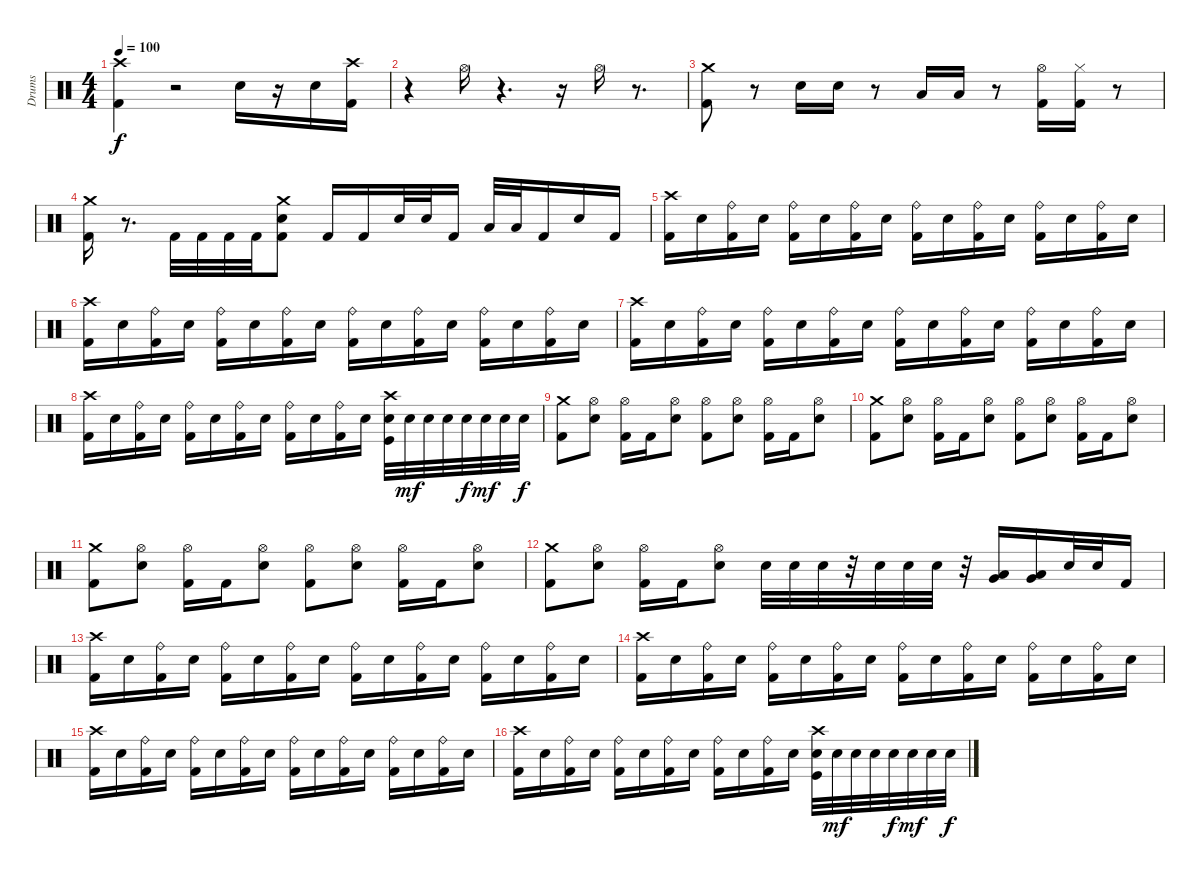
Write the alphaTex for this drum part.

\track ("Drums" "Drums") {instrument percussion}
\staff {score}
\articulation defaults
\ts (4 4)
\tempo 100
\clef neutral
\ks c
("Crash high (hit)" "Kick (hit) 2").4{dy f} r.2 "Electric Snare (hit)".16 r.16 "Electric Snare (hit)".16 ("Crash high (hit)" "Kick (hit) 2").16 |
r.4 "Hi-Hat (open)".16 r.4{d} r.16 "Hi-Hat (open)".16 r.8{d} |
("Kick (hit) 2" "Crash medium (hit)").8 r.8 "Electric Snare (hit)".16 "Electric Snare (hit)".16 r.8 "Low Tom (hit)".16 "Low Tom (hit)".16 r.8 ("Hi-Hat (open)" "Kick (hit) 2").16 ("Hi-Hat (closed)" "Kick (hit) 2").16 r.8 |
("Kick (hit) 2" "Crash medium (hit)").16 r.8{d} "Kick (hit) 2".32 "Kick (hit) 2".32 "Kick (hit) 2".32 "Kick (hit) 2".32 ("Crash medium (hit)" "Kick (hit) 2" "Electric Snare (hit)").8 "Kick (hit) 2".16 "Kick (hit) 2".16 "Electric Snare (hit)".32 "Electric Snare (hit)".32 "Kick (hit) 2".16 "Low Tom (hit)".32 "Low Tom (hit)".32 "Kick (hit) 2".16 "Electric Snare (hit)".16 "Kick (hit) 2".16 |
("Kick (hit) 2" "Crash high (hit)").16 "Electric Snare (hit)".16 ("Kick (hit) 2" "Ride (bell)").16 "Electric Snare (hit)".16 ("Kick (hit) 2" "Ride (bell)").16 "Electric Snare (hit)".16 ("Kick (hit) 2" "Ride (bell)").16 "Electric Snare (hit)".16 ("Kick (hit) 2" "Ride (bell)").16 "Electric Snare (hit)".16 ("Kick (hit) 2" "Ride (bell)").16 "Electric Snare (hit)".16 ("Kick (hit) 2" "Ride (bell)").16 "Electric Snare (hit)".16 ("Kick (hit) 2" "Ride (bell)").16 "Electric Snare (hit)".16 |
("Kick (hit) 2" "Crash high (hit)").16 "Electric Snare (hit)".16 ("Kick (hit) 2" "Ride (bell)").16 "Electric Snare (hit)".16 ("Kick (hit) 2" "Ride (bell)").16 "Electric Snare (hit)".16 ("Kick (hit) 2" "Ride (bell)").16 "Electric Snare (hit)".16 ("Kick (hit) 2" "Ride (bell)").16 "Electric Snare (hit)".16 ("Kick (hit) 2" "Ride (bell)").16 "Electric Snare (hit)".16 ("Kick (hit) 2" "Ride (bell)").16 "Electric Snare (hit)".16 ("Kick (hit) 2" "Ride (bell)").16 "Electric Snare (hit)".16 |
("Kick (hit) 2" "Crash high (hit)").16 "Electric Snare (hit)".16 ("Kick (hit) 2" "Ride (bell)").16 "Electric Snare (hit)".16 ("Kick (hit) 2" "Ride (bell)").16 "Electric Snare (hit)".16 ("Kick (hit) 2" "Ride (bell)").16 "Electric Snare (hit)".16 ("Kick (hit) 2" "Ride (bell)").16 "Electric Snare (hit)".16 ("Kick (hit) 2" "Ride (bell)").16 "Electric Snare (hit)".16 ("Kick (hit) 2" "Ride (bell)").16 "Electric Snare (hit)".16 ("Kick (hit) 2" "Ride (bell)").16 "Electric Snare (hit)".16 |
("Kick (hit) 2" "Crash high (hit)").16 "Electric Snare (hit)".16 ("Kick (hit) 2" "Ride (bell)").16 "Electric Snare (hit)".16 ("Kick (hit) 2" "Ride (bell)").16 "Electric Snare (hit)".16 ("Kick (hit) 2" "Ride (bell)").16 "Electric Snare (hit)".16 ("Kick (hit) 2" "Ride (bell)").16 "Electric Snare (hit)".16 ("Kick (hit) 2" "Ride (bell)").16 "Electric Snare (hit)".16 ("Kick (hit)" "Crash high (hit)" "Electric Snare (hit)").32 "Electric Snare (hit)".32{dy mf} "Electric Snare (hit)".32 "Electric Snare (hit)".32 "Electric Snare (hit)".32{dy f} "Electric Snare (hit)".32{dy mf} "Electric Snare (hit)".32 "Electric Snare (hit)".32{dy f} |
("Kick (hit) 2" "Crash medium (hit)").8 ("Electric Snare (hit)" "Hi-Hat (open)").8 ("Kick (hit) 2" "Hi-Hat (open)").16 "Kick (hit) 2".16 ("Electric Snare (hit)" "Hi-Hat (open)").8 ("Kick (hit) 2" "Hi-Hat (open)").8 ("Electric Snare (hit)" "Hi-Hat (open)").8 ("Kick (hit) 2" "Hi-Hat (open)").16 "Kick (hit) 2".16 ("Electric Snare (hit)" "Hi-Hat (open)").8 |
("Kick (hit) 2" "Crash medium (hit)").8 ("Electric Snare (hit)" "Hi-Hat (open)").8 ("Kick (hit) 2" "Hi-Hat (open)").16 "Kick (hit) 2".16 ("Electric Snare (hit)" "Hi-Hat (open)").8 ("Kick (hit) 2" "Hi-Hat (open)").8 ("Electric Snare (hit)" "Hi-Hat (open)").8 ("Kick (hit) 2" "Hi-Hat (open)").16 "Kick (hit) 2".16 ("Electric Snare (hit)" "Hi-Hat (open)").8 |
("Kick (hit) 2" "Crash medium (hit)").8 ("Electric Snare (hit)" "Hi-Hat (open)").8 ("Kick (hit) 2" "Hi-Hat (open)").16 "Kick (hit) 2".16 ("Electric Snare (hit)" "Hi-Hat (open)").8 ("Kick (hit) 2" "Hi-Hat (open)").8 ("Electric Snare (hit)" "Hi-Hat (open)").8 ("Kick (hit) 2" "Hi-Hat (open)").16 "Kick (hit) 2".16 ("Electric Snare (hit)" "Hi-Hat (open)").8 |
("Kick (hit) 2" "Crash medium (hit)").8 ("Electric Snare (hit)" "Hi-Hat (open)").8 ("Kick (hit) 2" "Hi-Hat (open)").16 "Kick (hit) 2".16 ("Electric Snare (hit)" "Hi-Hat (open)").8 "Electric Snare (hit)".32 "Electric Snare (hit)".32 "Electric Snare (hit)".32 r.32 "Electric Snare (hit)".32 "Electric Snare (hit)".32 "Electric Snare (hit)".32 r.32 ("Very Low Tom (hit)" "Low Tom (hit)").16 ("Low Floor Tom (hit)" "Very Low Tom (hit)").16 "Electric Snare (hit)".32 "Electric Snare (hit)".32 "Kick (hit) 2".16 |
("Kick (hit) 2" "Crash high (hit)").16 "Electric Snare (hit)".16 ("Kick (hit) 2" "Ride (bell)").16 "Electric Snare (hit)".16 ("Kick (hit) 2" "Ride (bell)").16 "Electric Snare (hit)".16 ("Kick (hit) 2" "Ride (bell)").16 "Electric Snare (hit)".16 ("Kick (hit) 2" "Ride (bell)").16 "Electric Snare (hit)".16 ("Kick (hit) 2" "Ride (bell)").16 "Electric Snare (hit)".16 ("Kick (hit) 2" "Ride (bell)").16 "Electric Snare (hit)".16 ("Kick (hit) 2" "Ride (bell)").16 "Electric Snare (hit)".16 |
("Kick (hit) 2" "Crash high (hit)").16 "Electric Snare (hit)".16 ("Kick (hit) 2" "Ride (bell)").16 "Electric Snare (hit)".16 ("Kick (hit) 2" "Ride (bell)").16 "Electric Snare (hit)".16 ("Kick (hit) 2" "Ride (bell)").16 "Electric Snare (hit)".16 ("Kick (hit) 2" "Ride (bell)").16 "Electric Snare (hit)".16 ("Kick (hit) 2" "Ride (bell)").16 "Electric Snare (hit)".16 ("Kick (hit) 2" "Ride (bell)").16 "Electric Snare (hit)".16 ("Kick (hit) 2" "Ride (bell)").16 "Electric Snare (hit)".16 |
("Kick (hit) 2" "Crash high (hit)").16 "Electric Snare (hit)".16 ("Kick (hit) 2" "Ride (bell)").16 "Electric Snare (hit)".16 ("Kick (hit) 2" "Ride (bell)").16 "Electric Snare (hit)".16 ("Kick (hit) 2" "Ride (bell)").16 "Electric Snare (hit)".16 ("Kick (hit) 2" "Ride (bell)").16 "Electric Snare (hit)".16 ("Kick (hit) 2" "Ride (bell)").16 "Electric Snare (hit)".16 ("Kick (hit) 2" "Ride (bell)").16 "Electric Snare (hit)".16 ("Kick (hit) 2" "Ride (bell)").16 "Electric Snare (hit)".16 |
("Kick (hit) 2" "Crash high (hit)").16 "Electric Snare (hit)".16 ("Kick (hit) 2" "Ride (bell)").16 "Electric Snare (hit)".16 ("Kick (hit) 2" "Ride (bell)").16 "Electric Snare (hit)".16 ("Kick (hit) 2" "Ride (bell)").16 "Electric Snare (hit)".16 ("Kick (hit) 2" "Ride (bell)").16 "Electric Snare (hit)".16 ("Kick (hit) 2" "Ride (bell)").16 "Electric Snare (hit)".16 ("Kick (hit)" "Crash high (hit)" "Electric Snare (hit)").32 "Electric Snare (hit)".32{dy mf} "Electric Snare (hit)".32 "Electric Snare (hit)".32 "Electric Snare (hit)".32{dy f} "Electric Snare (hit)".32{dy mf} "Electric Snare (hit)".32 "Electric Snare (hit)".32{dy f}
